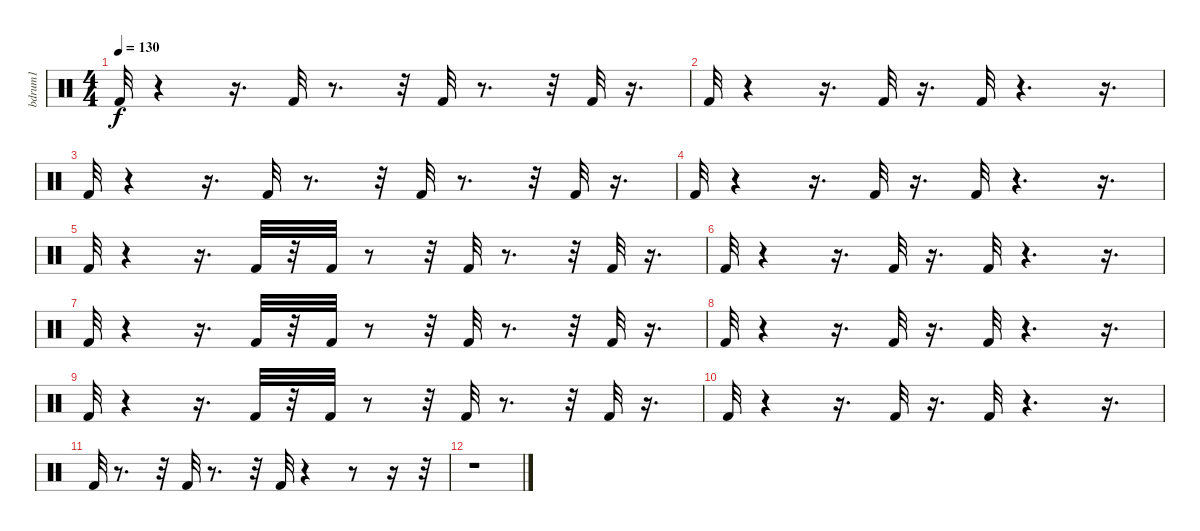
\track ("bdrum1              " "bdrum1    ") {instrument percussion}
\staff {score}
\articulation defaults
\ts (4 4)
\tempo 130
\clef neutral
\ks c "Kick (hit) 2".32{dy f}
r.4 r.16{d} "Kick (hit) 2".32 r.8{d} r.32 "Kick (hit) 2".32 r.8{d} r.32 "Kick (hit) 2".32 r.16{d} |
"Kick (hit) 2".32 r.4 r.16{d} "Kick (hit) 2".32 r.16{d} "Kick (hit) 2".32 r.4{d} r.16{d} |
"Kick (hit) 2".32 r.4 r.16{d} "Kick (hit) 2".32 r.8{d} r.32 "Kick (hit) 2".32 r.8{d} r.32 "Kick (hit) 2".32 r.16{d} |
"Kick (hit) 2".32 r.4 r.16{d} "Kick (hit) 2".32 r.16{d} "Kick (hit) 2".32 r.4{d} r.16{d} |
"Kick (hit) 2".32 r.4 r.16{d} "Kick (hit) 2".32 r.32 "Kick (hit) 2".32 r.8 r.32 "Kick (hit) 2".32 r.8{d} r.32 "Kick (hit) 2".32 r.16{d} |
"Kick (hit) 2".32 r.4 r.16{d} "Kick (hit) 2".32 r.16{d} "Kick (hit) 2".32 r.4{d} r.16{d} |
"Kick (hit) 2".32 r.4 r.16{d} "Kick (hit) 2".32 r.32 "Kick (hit) 2".32 r.8 r.32 "Kick (hit) 2".32 r.8{d} r.32 "Kick (hit) 2".32 r.16{d} |
"Kick (hit) 2".32 r.4 r.16{d} "Kick (hit) 2".32 r.16{d} "Kick (hit) 2".32 r.4{d} r.16{d} |
"Kick (hit) 2".32 r.4 r.16{d} "Kick (hit) 2".32 r.32 "Kick (hit) 2".32 r.8 r.32 "Kick (hit) 2".32 r.8{d} r.32 "Kick (hit) 2".32 r.16{d} |
"Kick (hit) 2".32 r.4 r.16{d} "Kick (hit) 2".32 r.16{d} "Kick (hit) 2".32 r.4{d} r.16{d} |
"Kick (hit) 2".32 r.8{d} r.32 "Kick (hit) 2".32 r.8{d} r.32 "Kick (hit) 2".32 r.4 r.8 r.16 r.32 |
r.1
